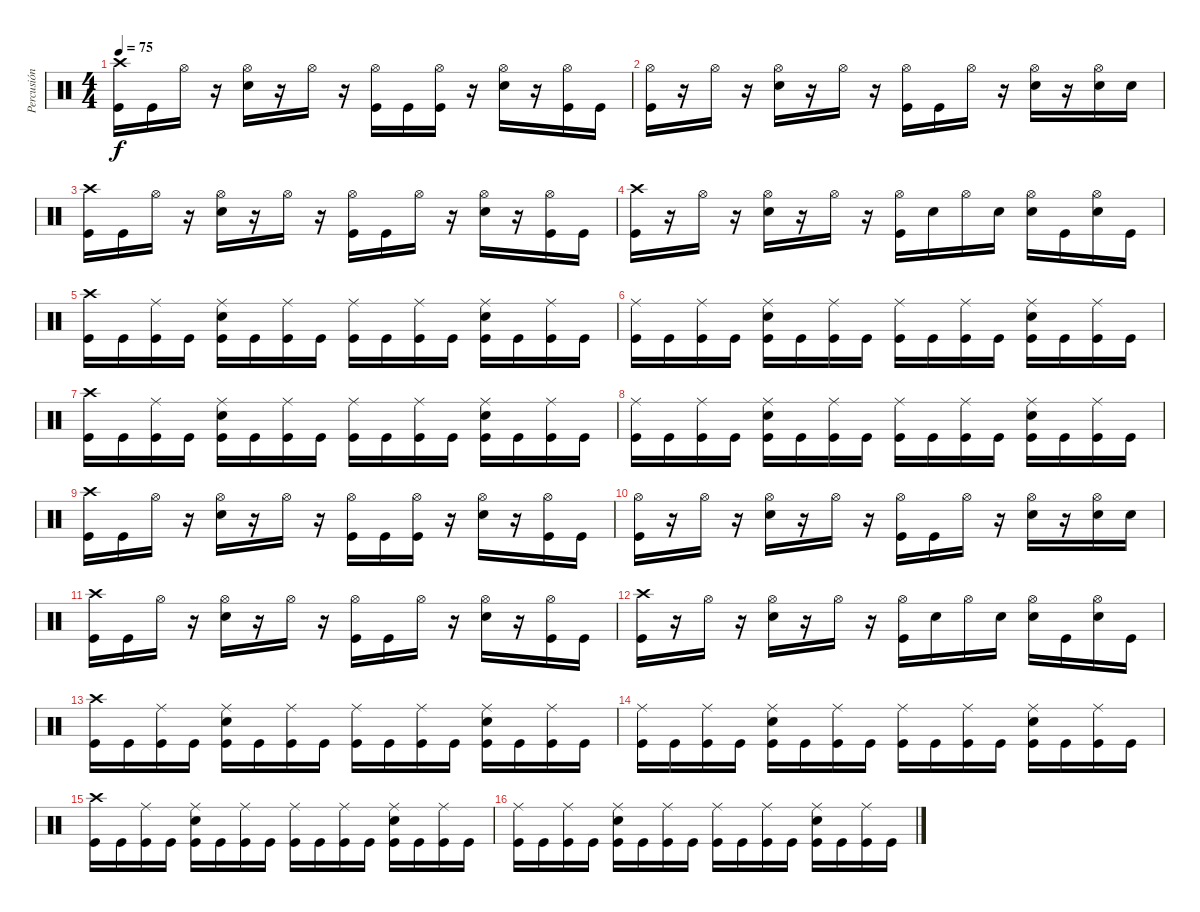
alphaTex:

\track ("Percusión" "Percusión") {instrument percussion}
\staff {score}
\articulation defaults
\ts (4 4)
\tempo 75
\clef neutral
\ks c
("Kick (hit)" "Crash high (hit)").16{dy f} "Kick (hit)".16 "Hi-Hat (open)".16 r.16 ("Snare (hit) 2" "Hi-Hat (open)").16 r.16 "Hi-Hat (open)".16 r.16 ("Kick (hit)" "Hi-Hat (open)").16 "Kick (hit)".16 ("Kick (hit)" "Hi-Hat (open)").16 r.16 ("Snare (hit) 2" "Hi-Hat (open)").16 r.16 ("Kick (hit)" "Hi-Hat (open)").16 "Kick (hit)".16 |
("Kick (hit)" "Hi-Hat (open)").16 r.16 "Hi-Hat (open)".16 r.16 ("Snare (hit) 2" "Hi-Hat (open)").16 r.16 "Hi-Hat (open)".16 r.16 ("Kick (hit)" "Hi-Hat (open)").16 "Kick (hit)".16 "Hi-Hat (open)".16 r.16 ("Snare (hit) 2" "Hi-Hat (open)").16 r.16 ("Snare (hit) 2" "Hi-Hat (open)").16 "Snare (hit) 2".16 |
("Kick (hit)" "Crash high (hit)").16 "Kick (hit)".16 "Hi-Hat (open)".16 r.16 ("Snare (hit) 2" "Hi-Hat (open)").16 r.16 "Hi-Hat (open)".16 r.16 ("Kick (hit)" "Hi-Hat (open)").16 "Kick (hit)".16 "Hi-Hat (open)".16 r.16 ("Snare (hit) 2" "Hi-Hat (open)").16 r.16 ("Kick (hit)" "Hi-Hat (open)").16 "Kick (hit)".16 |
("Kick (hit)" "Crash high (hit)").16 r.16 "Hi-Hat (open)".16 r.16 ("Snare (hit) 2" "Hi-Hat (open)").16 r.16 "Hi-Hat (open)".16 r.16 ("Kick (hit)" "Hi-Hat (open)").16 "Snare (hit) 2".16 "Hi-Hat (open)".16 "Snare (hit) 2".16 ("Snare (hit) 2" "Hi-Hat (open)").16 "Kick (hit)".16 ("Snare (hit) 2" "Hi-Hat (open)").16 "Kick (hit)".16 |
("Kick (hit)" "Crash high (hit)").16 "Kick (hit)".16 ("Kick (hit)" "Ride (middle)").16 "Kick (hit)".16 ("Kick (hit)" "Snare (hit) 2" "Ride (middle)").16 "Kick (hit)".16 ("Kick (hit)" "Ride (middle)").16 "Kick (hit)".16 ("Kick (hit)" "Ride (middle)").16 "Kick (hit)".16 ("Kick (hit)" "Ride (middle)").16 "Kick (hit)".16 ("Kick (hit)" "Snare (hit) 2" "Ride (middle)").16 "Kick (hit)".16 ("Kick (hit)" "Ride (middle)").16 "Kick (hit)".16 |
("Kick (hit)" "Ride (middle)").16 "Kick (hit)".16 ("Kick (hit)" "Ride (middle)").16 "Kick (hit)".16 ("Kick (hit)" "Snare (hit) 2" "Ride (middle)").16 "Kick (hit)".16 ("Kick (hit)" "Ride (middle)").16 "Kick (hit)".16 ("Kick (hit)" "Ride (middle)").16 "Kick (hit)".16 ("Kick (hit)" "Ride (middle)").16 "Kick (hit)".16 ("Kick (hit)" "Snare (hit) 2" "Ride (middle)").16 "Kick (hit)".16 ("Kick (hit)" "Ride (middle)").16 "Kick (hit)".16 |
("Kick (hit)" "Crash high (hit)").16 "Kick (hit)".16 ("Kick (hit)" "Ride (middle)").16 "Kick (hit)".16 ("Kick (hit)" "Snare (hit) 2" "Ride (middle)").16 "Kick (hit)".16 ("Kick (hit)" "Ride (middle)").16 "Kick (hit)".16 ("Kick (hit)" "Ride (middle)").16 "Kick (hit)".16 ("Kick (hit)" "Ride (middle)").16 "Kick (hit)".16 ("Kick (hit)" "Snare (hit) 2" "Ride (middle)").16 "Kick (hit)".16 ("Kick (hit)" "Ride (middle)").16 "Kick (hit)".16 |
("Kick (hit)" "Ride (middle)").16 "Kick (hit)".16 ("Kick (hit)" "Ride (middle)").16 "Kick (hit)".16 ("Kick (hit)" "Snare (hit) 2" "Ride (middle)").16 "Kick (hit)".16 ("Kick (hit)" "Ride (middle)").16 "Kick (hit)".16 ("Kick (hit)" "Ride (middle)").16 "Kick (hit)".16 ("Kick (hit)" "Ride (middle)").16 "Kick (hit)".16 ("Kick (hit)" "Snare (hit) 2" "Ride (middle)").16 "Kick (hit)".16 ("Kick (hit)" "Ride (middle)").16 "Kick (hit)".16 |
("Kick (hit)" "Crash high (hit)").16 "Kick (hit)".16 "Hi-Hat (open)".16 r.16 ("Snare (hit) 2" "Hi-Hat (open)").16 r.16 "Hi-Hat (open)".16 r.16 ("Kick (hit)" "Hi-Hat (open)").16 "Kick (hit)".16 ("Kick (hit)" "Hi-Hat (open)").16 r.16 ("Snare (hit) 2" "Hi-Hat (open)").16 r.16 ("Kick (hit)" "Hi-Hat (open)").16 "Kick (hit)".16 |
("Kick (hit)" "Hi-Hat (open)").16 r.16 "Hi-Hat (open)".16 r.16 ("Snare (hit) 2" "Hi-Hat (open)").16 r.16 "Hi-Hat (open)".16 r.16 ("Kick (hit)" "Hi-Hat (open)").16 "Kick (hit)".16 "Hi-Hat (open)".16 r.16 ("Snare (hit) 2" "Hi-Hat (open)").16 r.16 ("Snare (hit) 2" "Hi-Hat (open)").16 "Snare (hit) 2".16 |
("Kick (hit)" "Crash high (hit)").16 "Kick (hit)".16 "Hi-Hat (open)".16 r.16 ("Snare (hit) 2" "Hi-Hat (open)").16 r.16 "Hi-Hat (open)".16 r.16 ("Kick (hit)" "Hi-Hat (open)").16 "Kick (hit)".16 "Hi-Hat (open)".16 r.16 ("Snare (hit) 2" "Hi-Hat (open)").16 r.16 ("Kick (hit)" "Hi-Hat (open)").16 "Kick (hit)".16 |
("Kick (hit)" "Crash high (hit)").16 r.16 "Hi-Hat (open)".16 r.16 ("Snare (hit) 2" "Hi-Hat (open)").16 r.16 "Hi-Hat (open)".16 r.16 ("Kick (hit)" "Hi-Hat (open)").16 "Snare (hit) 2".16 "Hi-Hat (open)".16 "Snare (hit) 2".16 ("Snare (hit) 2" "Hi-Hat (open)").16 "Kick (hit)".16 ("Snare (hit) 2" "Hi-Hat (open)").16 "Kick (hit)".16 |
("Kick (hit)" "Crash high (hit)").16 "Kick (hit)".16 ("Kick (hit)" "Ride (middle)").16 "Kick (hit)".16 ("Kick (hit)" "Snare (hit) 2" "Ride (middle)").16 "Kick (hit)".16 ("Kick (hit)" "Ride (middle)").16 "Kick (hit)".16 ("Kick (hit)" "Ride (middle)").16 "Kick (hit)".16 ("Kick (hit)" "Ride (middle)").16 "Kick (hit)".16 ("Kick (hit)" "Snare (hit) 2" "Ride (middle)").16 "Kick (hit)".16 ("Kick (hit)" "Ride (middle)").16 "Kick (hit)".16 |
("Kick (hit)" "Ride (middle)").16 "Kick (hit)".16 ("Kick (hit)" "Ride (middle)").16 "Kick (hit)".16 ("Kick (hit)" "Snare (hit) 2" "Ride (middle)").16 "Kick (hit)".16 ("Kick (hit)" "Ride (middle)").16 "Kick (hit)".16 ("Kick (hit)" "Ride (middle)").16 "Kick (hit)".16 ("Kick (hit)" "Ride (middle)").16 "Kick (hit)".16 ("Kick (hit)" "Snare (hit) 2" "Ride (middle)").16 "Kick (hit)".16 ("Kick (hit)" "Ride (middle)").16 "Kick (hit)".16 |
("Kick (hit)" "Crash high (hit)").16 "Kick (hit)".16 ("Kick (hit)" "Ride (middle)").16 "Kick (hit)".16 ("Kick (hit)" "Snare (hit) 2" "Ride (middle)").16 "Kick (hit)".16 ("Kick (hit)" "Ride (middle)").16 "Kick (hit)".16 ("Kick (hit)" "Ride (middle)").16 "Kick (hit)".16 ("Kick (hit)" "Ride (middle)").16 "Kick (hit)".16 ("Kick (hit)" "Snare (hit) 2" "Ride (middle)").16 "Kick (hit)".16 ("Kick (hit)" "Ride (middle)").16 "Kick (hit)".16 |
("Kick (hit)" "Ride (middle)").16 "Kick (hit)".16 ("Kick (hit)" "Ride (middle)").16 "Kick (hit)".16 ("Kick (hit)" "Snare (hit) 2" "Ride (middle)").16 "Kick (hit)".16 ("Kick (hit)" "Ride (middle)").16 "Kick (hit)".16 ("Kick (hit)" "Ride (middle)").16 "Kick (hit)".16 ("Kick (hit)" "Ride (middle)").16 "Kick (hit)".16 ("Kick (hit)" "Snare (hit) 2" "Ride (middle)").16 "Kick (hit)".16 ("Kick (hit)" "Ride (middle)").16 "Kick (hit)".16
